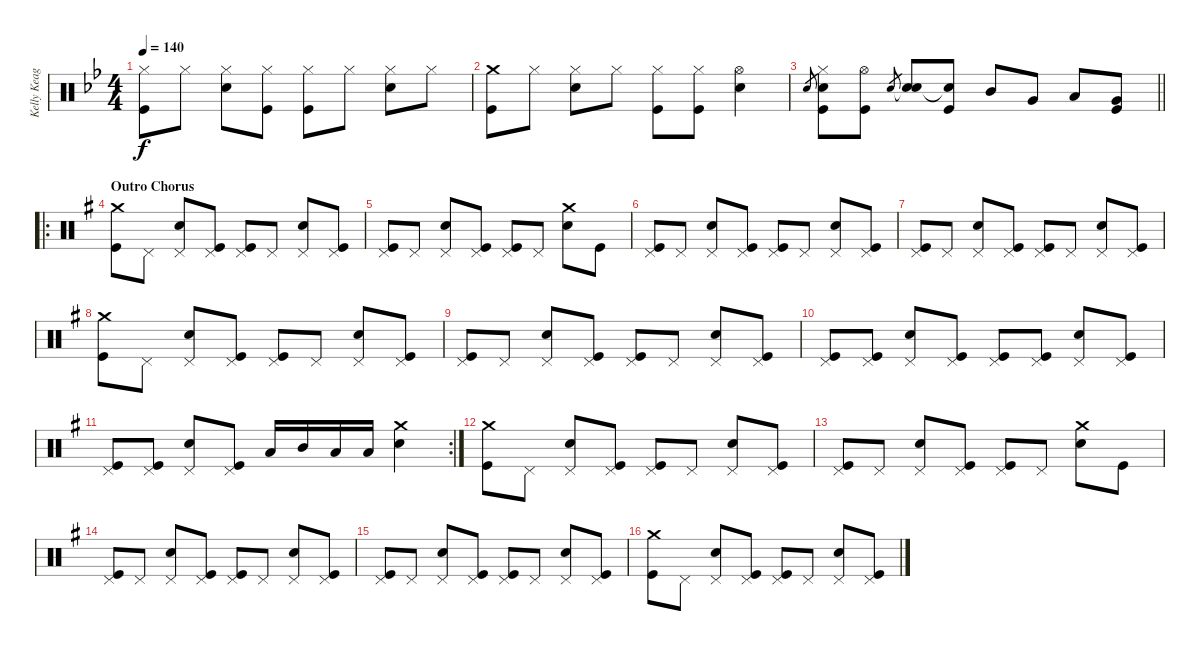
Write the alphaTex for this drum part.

\track ("Kelly Keagy" "Kelly Keag") {instrument percussion}
\staff {score}
\articulation defaults
\ts (4 4)
\tempo 140
\clef neutral
\ks bb
("Hi-Hat (closed)" "Kick (hit)").8{dy f} "Hi-Hat (closed)".8 ("Hi-Hat (closed)" "Snare (hit) 2").8 ("Hi-Hat (closed)" "Kick (hit)").8 ("Hi-Hat (closed)" "Kick (hit)").8 "Hi-Hat (closed)".8 ("Hi-Hat (closed)" "Snare (hit) 2").8 "Hi-Hat (closed)".8 |
("Crash medium (hit)" "Kick (hit)").8 "Hi-Hat (closed)".8 ("Hi-Hat (closed)" "Snare (hit) 2").8 "Hi-Hat (closed)".8 ("Hi-Hat (closed)" "Kick (hit)").8 ("Hi-Hat (closed)" "Kick (hit)").8 ("Hi-Hat (open)" "Snare (hit) 2").4 |
\barLineRight lightlight "Snare (hit) 2".8{gr}
("Hi-Hat (closed)" "Snare (hit) 2" "Kick (hit)").8 ("Hi-Hat (open)" "Kick (hit)").8 "Snare (hit) 2".8{gr} ("Snare (hit)"{t} "Snare (hit) 2").8 ("Snare (hit)"{t} "Kick (hit)").8 "Mid Tom (hit)".8 "Very Low Tom (hit)".8 "Low Tom (hit)".8 ("Very Low Tom (hit)" "Kick (hit)").8 |
\ro
\section ("" "Outro Chorus")
\ks g
("Crash medium (hit)" "Kick (hit)").8 "Pedal Hi-Hat (hit)".8 ("Pedal Hi-Hat (hit)" "Snare (hit) 2").8 ("Pedal Hi-Hat (hit)" "Kick (hit)").8 ("Pedal Hi-Hat (hit)" "Kick (hit)").8 "Pedal Hi-Hat (hit)".8 ("Pedal Hi-Hat (hit)" "Snare (hit) 2").8 ("Pedal Hi-Hat (hit)" "Kick (hit)").8 |
("Pedal Hi-Hat (hit)" "Kick (hit)").8 "Pedal Hi-Hat (hit)".8 ("Pedal Hi-Hat (hit)" "Snare (hit) 2").8 ("Pedal Hi-Hat (hit)" "Kick (hit)").8 ("Pedal Hi-Hat (hit)" "Kick (hit)").8 "Pedal Hi-Hat (hit)".8 ("Crash medium (hit)" "Snare (hit) 2").8 "Kick (hit)".8 |
("Pedal Hi-Hat (hit)" "Kick (hit)").8 "Pedal Hi-Hat (hit)".8 ("Pedal Hi-Hat (hit)" "Snare (hit) 2").8 ("Pedal Hi-Hat (hit)" "Kick (hit)").8 ("Pedal Hi-Hat (hit)" "Kick (hit)").8 "Pedal Hi-Hat (hit)".8 ("Pedal Hi-Hat (hit)" "Snare (hit) 2").8 ("Pedal Hi-Hat (hit)" "Kick (hit)").8 |
("Pedal Hi-Hat (hit)" "Kick (hit)").8 "Pedal Hi-Hat (hit)".8 ("Pedal Hi-Hat (hit)" "Snare (hit) 2").8 ("Pedal Hi-Hat (hit)" "Kick (hit)").8 ("Pedal Hi-Hat (hit)" "Kick (hit)").8 "Pedal Hi-Hat (hit)".8 ("Pedal Hi-Hat (hit)" "Snare (hit) 2").8 ("Pedal Hi-Hat (hit)" "Kick (hit)").8 |
("Crash medium (hit)" "Kick (hit)").8 "Pedal Hi-Hat (hit)".8 ("Pedal Hi-Hat (hit)" "Snare (hit) 2").8 ("Pedal Hi-Hat (hit)" "Kick (hit)").8 ("Pedal Hi-Hat (hit)" "Kick (hit)").8 "Pedal Hi-Hat (hit)".8 ("Pedal Hi-Hat (hit)" "Snare (hit) 2").8 ("Pedal Hi-Hat (hit)" "Kick (hit)").8 |
("Pedal Hi-Hat (hit)" "Kick (hit)").8 "Pedal Hi-Hat (hit)".8 ("Pedal Hi-Hat (hit)" "Snare (hit) 2").8 ("Pedal Hi-Hat (hit)" "Kick (hit)").8 ("Pedal Hi-Hat (hit)" "Kick (hit)").8 "Pedal Hi-Hat (hit)".8 ("Pedal Hi-Hat (hit)" "Snare (hit) 2").8 ("Pedal Hi-Hat (hit)" "Kick (hit)").8 |
("Pedal Hi-Hat (hit)" "Kick (hit)").8 ("Pedal Hi-Hat (hit)" "Kick (hit)").8 ("Pedal Hi-Hat (hit)" "Snare (hit) 2").8 ("Pedal Hi-Hat (hit)" "Kick (hit)").8 ("Pedal Hi-Hat (hit)" "Kick (hit)").8 ("Pedal Hi-Hat (hit)" "Kick (hit)").8 ("Pedal Hi-Hat (hit)" "Snare (hit) 2").8 ("Pedal Hi-Hat (hit)" "Kick (hit)").8 |
\rc 2
("Pedal Hi-Hat (hit)" "Kick (hit)").8 ("Pedal Hi-Hat (hit)" "Kick (hit)").8 ("Pedal Hi-Hat (hit)" "Snare (hit) 2").8 ("Pedal Hi-Hat (hit)" "Kick (hit)").8 "Low Tom (hit)".16 "Mid Tom (hit)".16 "Low Tom (hit)".16 "Low Tom (hit)".16 ("Crash medium (hit)" "Snare (hit) 2").4 |
("Crash medium (hit)" "Kick (hit)").8 "Pedal Hi-Hat (hit)".8 ("Pedal Hi-Hat (hit)" "Snare (hit) 2").8 ("Pedal Hi-Hat (hit)" "Kick (hit)").8 ("Pedal Hi-Hat (hit)" "Kick (hit)").8 "Pedal Hi-Hat (hit)".8 ("Pedal Hi-Hat (hit)" "Snare (hit) 2").8 ("Pedal Hi-Hat (hit)" "Kick (hit)").8 |
("Pedal Hi-Hat (hit)" "Kick (hit)").8 "Pedal Hi-Hat (hit)".8 ("Pedal Hi-Hat (hit)" "Snare (hit) 2").8 ("Pedal Hi-Hat (hit)" "Kick (hit)").8 ("Pedal Hi-Hat (hit)" "Kick (hit)").8 "Pedal Hi-Hat (hit)".8 ("Crash medium (hit)" "Snare (hit) 2").8 "Kick (hit)".8 |
("Pedal Hi-Hat (hit)" "Kick (hit)").8 "Pedal Hi-Hat (hit)".8 ("Pedal Hi-Hat (hit)" "Snare (hit) 2").8 ("Pedal Hi-Hat (hit)" "Kick (hit)").8 ("Pedal Hi-Hat (hit)" "Kick (hit)").8 "Pedal Hi-Hat (hit)".8 ("Pedal Hi-Hat (hit)" "Snare (hit) 2").8 ("Pedal Hi-Hat (hit)" "Kick (hit)").8 |
("Pedal Hi-Hat (hit)" "Kick (hit)").8 "Pedal Hi-Hat (hit)".8 ("Pedal Hi-Hat (hit)" "Snare (hit) 2").8 ("Pedal Hi-Hat (hit)" "Kick (hit)").8 ("Pedal Hi-Hat (hit)" "Kick (hit)").8 "Pedal Hi-Hat (hit)".8 ("Pedal Hi-Hat (hit)" "Snare (hit) 2").8 ("Pedal Hi-Hat (hit)" "Kick (hit)").8 |
("Crash medium (hit)" "Kick (hit)").8 "Pedal Hi-Hat (hit)".8 ("Pedal Hi-Hat (hit)" "Snare (hit) 2").8 ("Pedal Hi-Hat (hit)" "Kick (hit)").8 ("Pedal Hi-Hat (hit)" "Kick (hit)").8 "Pedal Hi-Hat (hit)".8 ("Pedal Hi-Hat (hit)" "Snare (hit) 2").8 ("Pedal Hi-Hat (hit)" "Kick (hit)").8
